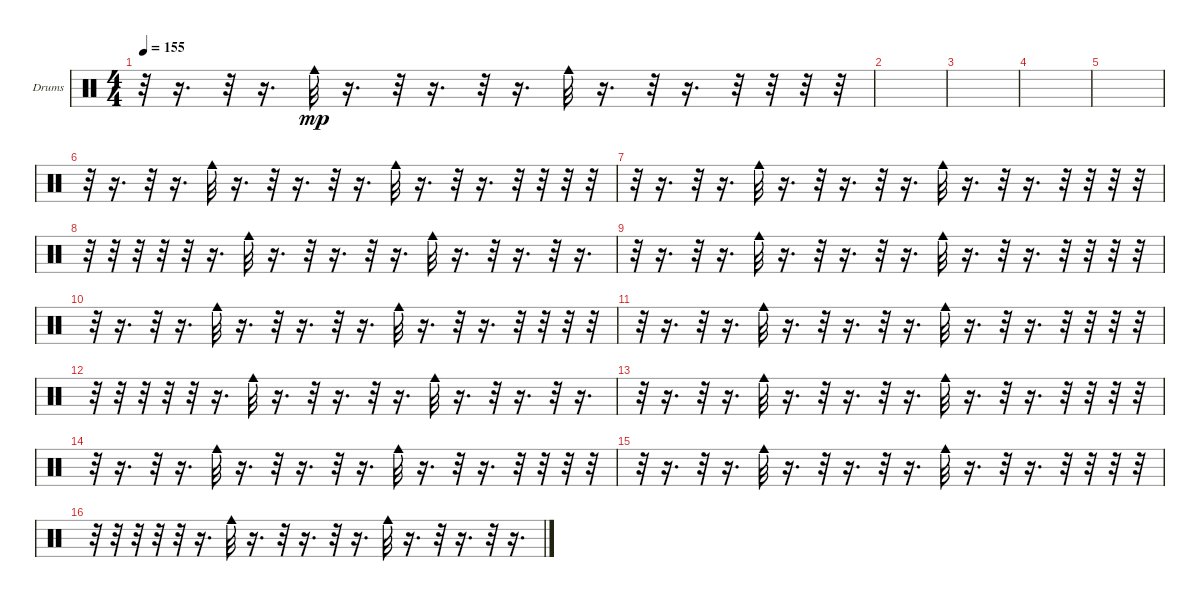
\bracketExtendMode groupsimilarinstruments
\firstSystemTrackNameOrientation horizontal
\otherSystemsTrackNameOrientation horizontal
\track ("Е. Кулаков" "Drums") {instrument percussion}
\staff {score}
\articulation defaults
\ts (4 4)
\tempo 155
\clef neutral
\ks c
r.32{dy mp} r.16{d} r.32 r.16{d} "Cowbell medium (hit)".32 r.16{d} r.32 r.16{d} r.32 r.16{d} "Cowbell medium (hit)".32 r.16{d} r.32 r.16{d} r.32 r.32 r.32 r.32 |
|
|
|
|
r.32 r.16{d} r.32 r.16{d} "Cowbell medium (hit)".32 r.16{d} r.32 r.16{d} r.32 r.16{d} "Cowbell medium (hit)".32 r.16{d} r.32 r.16{d} r.32 r.32 r.32 r.32 |
r.32 r.16{d} r.32 r.16{d} "Cowbell medium (hit)".32 r.16{d} r.32 r.16{d} r.32 r.16{d} "Cowbell medium (hit)".32 r.16{d} r.32 r.16{d} r.32 r.32 r.32 r.32 |
r.32 r.32 r.32 r.32 r.32 r.16{d} "Cowbell medium (hit)".32 r.16{d} r.32 r.16{d} r.32 r.16{d} "Cowbell medium (hit)".32 r.16{d} r.32 r.16{d} r.32 r.16{d} |
r.32 r.16{d} r.32 r.16{d} "Cowbell medium (hit)".32 r.16{d} r.32 r.16{d} r.32 r.16{d} "Cowbell medium (hit)".32 r.16{d} r.32 r.16{d} r.32 r.32 r.32 r.32 |
r.32 r.16{d} r.32 r.16{d} "Cowbell medium (hit)".32 r.16{d} r.32 r.16{d} r.32 r.16{d} "Cowbell medium (hit)".32 r.16{d} r.32 r.16{d} r.32 r.32 r.32 r.32 |
r.32 r.16{d} r.32 r.16{d} "Cowbell medium (hit)".32 r.16{d} r.32 r.16{d} r.32 r.16{d} "Cowbell medium (hit)".32 r.16{d} r.32 r.16{d} r.32 r.32 r.32 r.32 |
r.32 r.32 r.32 r.32 r.32 r.16{d} "Cowbell medium (hit)".32 r.16{d} r.32 r.16{d} r.32 r.16{d} "Cowbell medium (hit)".32 r.16{d} r.32 r.16{d} r.32 r.16{d} |
r.32 r.16{d} r.32 r.16{d} "Cowbell medium (hit)".32 r.16{d} r.32 r.16{d} r.32 r.16{d} "Cowbell medium (hit)".32 r.16{d} r.32 r.16{d} r.32 r.32 r.32 r.32 |
r.32 r.16{d} r.32 r.16{d} "Cowbell medium (hit)".32 r.16{d} r.32 r.16{d} r.32 r.16{d} "Cowbell medium (hit)".32 r.16{d} r.32 r.16{d} r.32 r.32 r.32 r.32 |
r.32 r.16{d} r.32 r.16{d} "Cowbell medium (hit)".32 r.16{d} r.32 r.16{d} r.32 r.16{d} "Cowbell medium (hit)".32 r.16{d} r.32 r.16{d} r.32 r.32 r.32 r.32 |
r.32 r.32 r.32 r.32 r.32 r.16{d} "Cowbell medium (hit)".32 r.16{d} r.32 r.16{d} r.32 r.16{d} "Cowbell medium (hit)".32 r.16{d} r.32 r.16{d} r.32 r.16{d}
